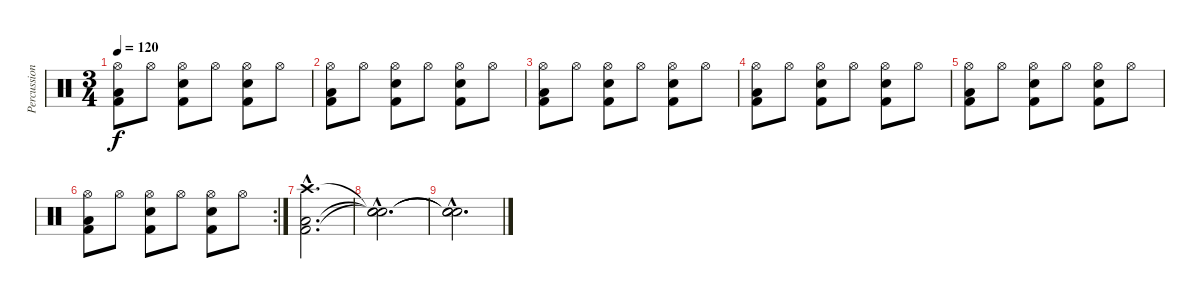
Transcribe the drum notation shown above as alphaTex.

\track ("Percussions" "Percussion") {instrument percussion}
\staff {score}
\articulation defaults
\ts (3 4)
\tempo 120
\clef neutral
\ks c
("Hi-Hat (open)" "Low Tom (hit)" "Kick (hit) 2").8{dy f} "Hi-Hat (open)".8 ("Hi-Hat (open)" "Snare (hit) 2" "Kick (hit) 2").8 "Hi-Hat (open)".8 ("Hi-Hat (open)" "Snare (hit) 2" "Kick (hit) 2").8 "Hi-Hat (open)".8 |
("Hi-Hat (open)" "Low Tom (hit)" "Kick (hit) 2").8 "Hi-Hat (open)".8 ("Hi-Hat (open)" "Snare (hit) 2" "Kick (hit) 2").8 "Hi-Hat (open)".8 ("Hi-Hat (open)" "Snare (hit) 2" "Kick (hit) 2").8 "Hi-Hat (open)".8 |
("Hi-Hat (open)" "Low Tom (hit)" "Kick (hit) 2").8 "Hi-Hat (open)".8 ("Hi-Hat (open)" "Snare (hit) 2" "Kick (hit) 2").8 "Hi-Hat (open)".8 ("Hi-Hat (open)" "Snare (hit) 2" "Kick (hit) 2").8 "Hi-Hat (open)".8 |
("Hi-Hat (open)" "Low Tom (hit)" "Kick (hit) 2").8 "Hi-Hat (open)".8 ("Hi-Hat (open)" "Snare (hit) 2" "Kick (hit) 2").8 "Hi-Hat (open)".8 ("Hi-Hat (open)" "Snare (hit) 2" "Kick (hit) 2").8 "Hi-Hat (open)".8 |
("Hi-Hat (open)" "Low Tom (hit)" "Kick (hit) 2").8 "Hi-Hat (open)".8 ("Hi-Hat (open)" "Snare (hit) 2" "Kick (hit) 2").8 "Hi-Hat (open)".8 ("Hi-Hat (open)" "Snare (hit) 2" "Kick (hit) 2").8 "Hi-Hat (open)".8 |
\rc 2
("Hi-Hat (open)" "Low Tom (hit)" "Kick (hit) 2").8 "Hi-Hat (open)".8 ("Hi-Hat (open)" "Snare (hit) 2" "Kick (hit) 2").8 "Hi-Hat (open)".8 ("Hi-Hat (open)" "Snare (hit) 2" "Kick (hit) 2").8 "Hi-Hat (open)".8 |
("Crash high (hit)"{hac} "Low Tom (hit)"{hac} "Kick (hit) 2"{hac}).2{d} |
("Snare (hit)"{hac t} "Snare (hit)"{hac t} "Snare (hit)"{hac t}).2{d} |
("Snare (hit)"{hac t} "Snare (hit)"{hac t} "Snare (hit)"{hac t}).2{d}
